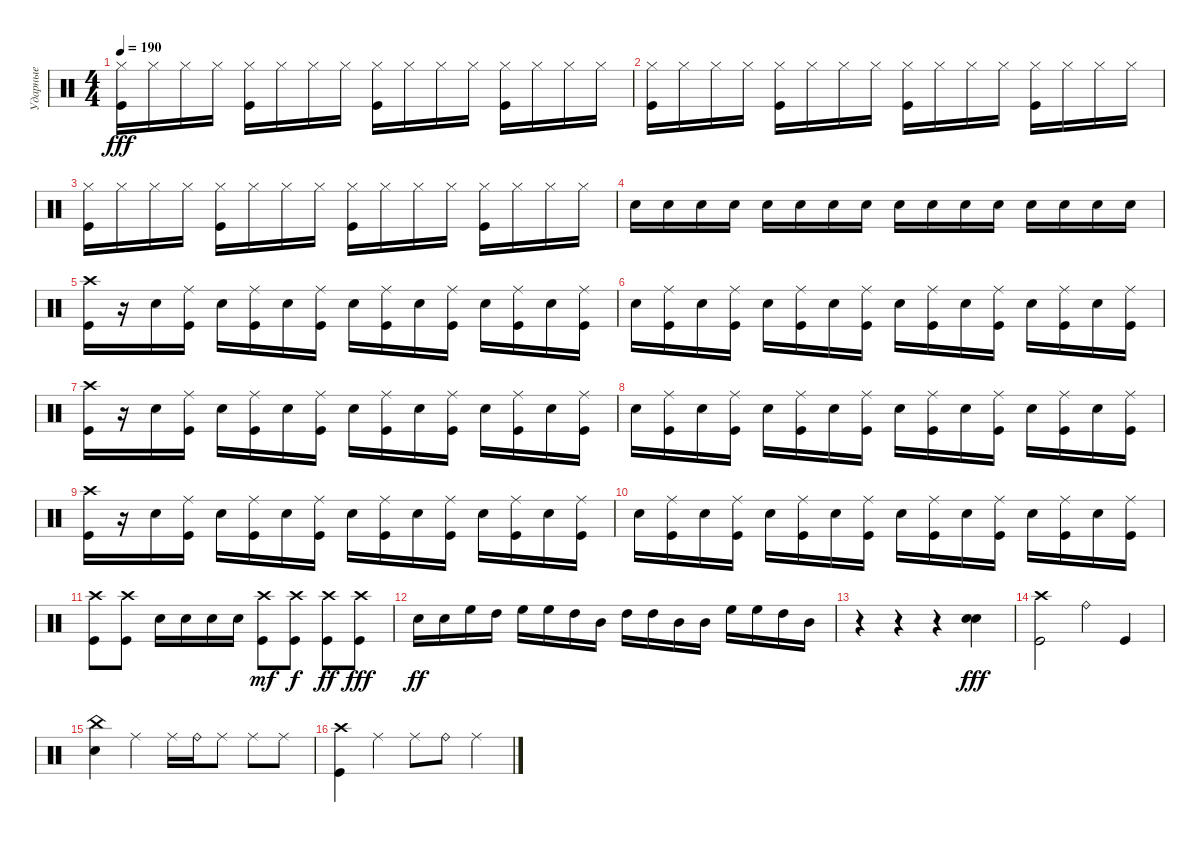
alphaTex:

\track ("Ударные" "Ударные") {instrument percussion}
\staff {score}
\articulation defaults
\ts (4 4)
\tempo 190
\clef neutral
\ks c
("Hi-Hat (closed)" "Kick (hit)").16{dy fff} "Hi-Hat (closed)".16 "Hi-Hat (closed)".16 "Hi-Hat (closed)".16 ("Hi-Hat (closed)" "Kick (hit)").16 "Hi-Hat (closed)".16 "Hi-Hat (closed)".16 "Hi-Hat (closed)".16 ("Hi-Hat (closed)" "Kick (hit)").16 "Hi-Hat (closed)".16 "Hi-Hat (closed)".16 "Hi-Hat (closed)".16 ("Hi-Hat (closed)" "Kick (hit)").16 "Hi-Hat (closed)".16 "Hi-Hat (closed)".16 "Hi-Hat (closed)".16 |
("Hi-Hat (closed)" "Kick (hit)").16 "Hi-Hat (closed)".16 "Hi-Hat (closed)".16 "Hi-Hat (closed)".16 ("Hi-Hat (closed)" "Kick (hit)").16 "Hi-Hat (closed)".16 "Hi-Hat (closed)".16 "Hi-Hat (closed)".16 ("Hi-Hat (closed)" "Kick (hit)").16 "Hi-Hat (closed)".16 "Hi-Hat (closed)".16 "Hi-Hat (closed)".16 ("Hi-Hat (closed)" "Kick (hit)").16 "Hi-Hat (closed)".16 "Hi-Hat (closed)".16 "Hi-Hat (closed)".16 |
("Hi-Hat (closed)" "Kick (hit)").16 "Hi-Hat (closed)".16 "Hi-Hat (closed)".16 "Hi-Hat (closed)".16 ("Hi-Hat (closed)" "Kick (hit)").16 "Hi-Hat (closed)".16 "Hi-Hat (closed)".16 "Hi-Hat (closed)".16 ("Hi-Hat (closed)" "Kick (hit)").16 "Hi-Hat (closed)".16 "Hi-Hat (closed)".16 "Hi-Hat (closed)".16 ("Hi-Hat (closed)" "Kick (hit)").16 "Hi-Hat (closed)".16 "Hi-Hat (closed)".16 "Hi-Hat (closed)".16 |
"Snare (hit) 2".16 "Snare (hit) 2".16 "Snare (hit) 2".16 "Snare (hit) 2".16 "Snare (hit) 2".16 "Snare (hit) 2".16 "Snare (hit) 2".16 "Snare (hit) 2".16 "Snare (hit) 2".16 "Snare (hit) 2".16 "Snare (hit) 2".16 "Snare (hit) 2".16 "Snare (hit) 2".16 "Snare (hit) 2".16 "Snare (hit) 2".16 "Snare (hit) 2".16 |
("Kick (hit)" "Crash high (hit)").16 r.16 "Snare (hit) 2".16 ("Kick (hit)" "Ride (middle)").16 "Snare (hit) 2".16 ("Kick (hit)" "Ride (middle)").16 "Snare (hit) 2".16 ("Kick (hit)" "Ride (middle)").16 "Snare (hit) 2".16 ("Kick (hit)" "Ride (middle)").16 "Snare (hit) 2".16 ("Kick (hit)" "Ride (middle)").16 "Snare (hit) 2".16 ("Kick (hit)" "Ride (middle)").16 "Snare (hit) 2".16 ("Kick (hit)" "Ride (middle)").16 |
"Snare (hit) 2".16 ("Kick (hit)" "Ride (middle)").16 "Snare (hit) 2".16 ("Kick (hit)" "Ride (middle)").16 "Snare (hit) 2".16 ("Kick (hit)" "Ride (middle)").16 "Snare (hit) 2".16 ("Kick (hit)" "Ride (middle)").16 "Snare (hit) 2".16 ("Kick (hit)" "Ride (middle)").16 "Snare (hit) 2".16 ("Kick (hit)" "Ride (middle)").16 "Snare (hit) 2".16 ("Kick (hit)" "Ride (middle)").16 "Snare (hit) 2".16 ("Kick (hit)" "Ride (middle)").16 |
("Kick (hit)" "Crash high (hit)").16 r.16 "Snare (hit) 2".16 ("Kick (hit)" "Ride (middle)").16 "Snare (hit) 2".16 ("Kick (hit)" "Ride (middle)").16 "Snare (hit) 2".16 ("Kick (hit)" "Ride (middle)").16 "Snare (hit) 2".16 ("Kick (hit)" "Ride (middle)").16 "Snare (hit) 2".16 ("Kick (hit)" "Ride (middle)").16 "Snare (hit) 2".16 ("Kick (hit)" "Ride (middle)").16 "Snare (hit) 2".16 ("Kick (hit)" "Ride (middle)").16 |
"Snare (hit) 2".16 ("Kick (hit)" "Ride (middle)").16 "Snare (hit) 2".16 ("Kick (hit)" "Ride (middle)").16 "Snare (hit) 2".16 ("Kick (hit)" "Ride (middle)").16 "Snare (hit) 2".16 ("Kick (hit)" "Ride (middle)").16 "Snare (hit) 2".16 ("Kick (hit)" "Ride (middle)").16 "Snare (hit) 2".16 ("Kick (hit)" "Ride (middle)").16 "Snare (hit) 2".16 ("Kick (hit)" "Ride (middle)").16 "Snare (hit) 2".16 ("Kick (hit)" "Ride (middle)").16 |
("Kick (hit)" "Crash high (hit)").16 r.16 "Snare (hit) 2".16 ("Kick (hit)" "Ride (middle)").16 "Snare (hit) 2".16 ("Kick (hit)" "Ride (middle)").16 "Snare (hit) 2".16 ("Kick (hit)" "Ride (middle)").16 "Snare (hit) 2".16 ("Kick (hit)" "Ride (middle)").16 "Snare (hit) 2".16 ("Kick (hit)" "Ride (middle)").16 "Snare (hit) 2".16 ("Kick (hit)" "Ride (middle)").16 "Snare (hit) 2".16 ("Kick (hit)" "Ride (middle)").16 |
"Snare (hit) 2".16 ("Kick (hit)" "Ride (middle)").16 "Snare (hit) 2".16 ("Kick (hit)" "Ride (middle)").16 "Snare (hit) 2".16 ("Kick (hit)" "Ride (middle)").16 "Snare (hit) 2".16 ("Kick (hit)" "Ride (middle)").16 "Snare (hit) 2".16 ("Kick (hit)" "Ride (middle)").16 "Snare (hit) 2".16 ("Kick (hit)" "Ride (middle)").16 "Snare (hit) 2".16 ("Kick (hit)" "Ride (middle)").16 "Snare (hit) 2".16 ("Kick (hit)" "Ride (middle)").16 |
("Crash high (hit)" "Kick (hit)").8 ("Kick (hit)" "Crash high (hit)").8 "Snare (hit) 2".16 "Snare (hit) 2".16 "Snare (hit) 2".16 "Snare (hit) 2".16 ("Crash high (hit)" "Kick (hit)").8{dy mf} ("Crash high (hit)" "Kick (hit)").8{dy f} ("Kick (hit)" "Crash high (hit)").8{dy ff} ("Crash high (hit)" "Kick (hit)").8{dy fff} |
"Snare (hit) 2".16{dy ff} "Snare (hit) 2".16 "High Floor Tom (hit)".16 "High Tom (hit)".16 "High Floor Tom (hit)".16 "High Floor Tom (hit)".16 "High Tom (hit)".16 "Mid Tom (hit)".16 "High Tom (hit)".16 "High Tom (hit)".16 "Mid Tom (hit)".16 "Mid Tom (hit)".16 "High Floor Tom (hit)".16 "High Floor Tom (hit)".16 "High Tom (hit)".16 "Mid Tom (hit)".16 |
r.4 r.4 r.4 ("Snare (hit) 2" "Snare (hit) 2").4{dy fff} |
("Kick (hit)" "Crash high (hit)").2 "Ride (bell)".4 "Kick (hit)".4 |
("China (hit)" "Snare (hit) 2").4 "Ride (middle)".4 "Ride (middle)".16 "Ride (bell)".16 "Ride (middle)".8 "Ride (middle)".8 "Ride (middle)".8 |
("Crash high (hit)" "Kick (hit)").4 "Ride (middle)".4 "Ride (middle)".8 "Ride (bell)".8 "Ride (middle)".4
